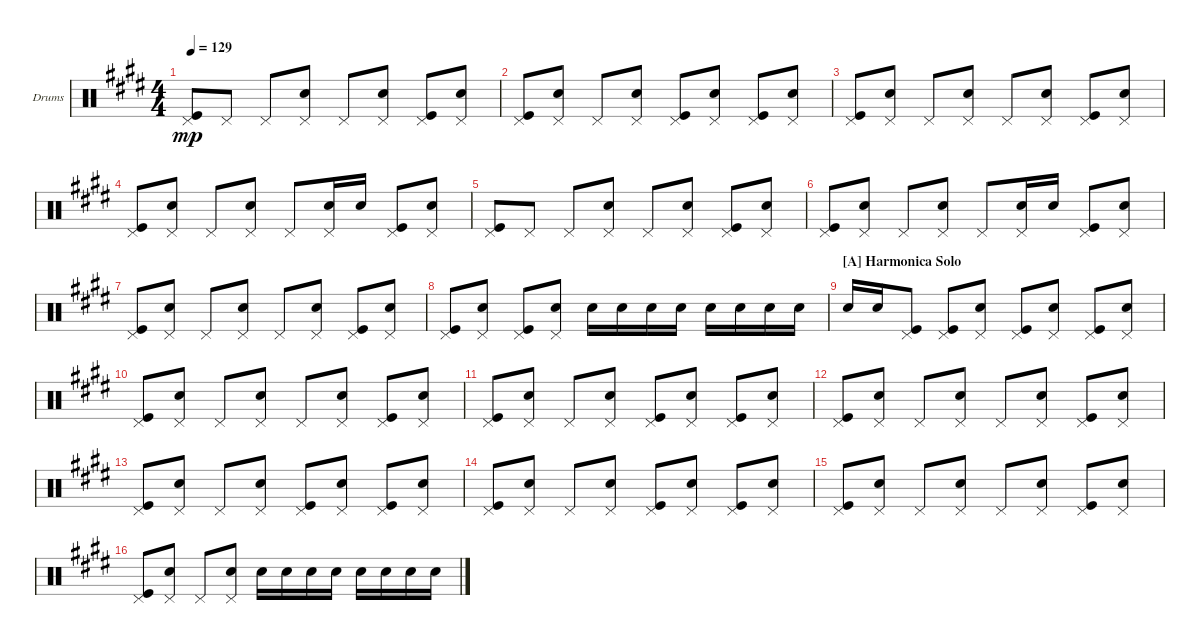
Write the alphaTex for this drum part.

\defaultSystemsLayout 4
\bracketExtendMode groupsimilarinstruments
\firstSystemTrackNameOrientation horizontal
\otherSystemsTrackNameOrientation horizontal
\chordDiagramsInScore
\track ("Drumkit" "Drums") {instrument percussion}
\staff {score}
\articulation defaults
\ts (4 4)
\tempo 129
\clef neutral
\ks c#minor
("Kick (hit)" "Pedal Hi-Hat (hit)").8{dy mp} "Pedal Hi-Hat (hit)".8 "Pedal Hi-Hat (hit)".8 ("Pedal Hi-Hat (hit)" "Snare (hit) 2").8 "Pedal Hi-Hat (hit)".8 ("Pedal Hi-Hat (hit)" "Snare (hit) 2").8 ("Pedal Hi-Hat (hit)" "Kick (hit)").8 ("Pedal Hi-Hat (hit)" "Snare (hit) 2").8 |
("Kick (hit)" "Pedal Hi-Hat (hit)").8 ("Pedal Hi-Hat (hit)" "Snare (hit) 2").8 "Pedal Hi-Hat (hit)".8 ("Pedal Hi-Hat (hit)" "Snare (hit) 2").8 ("Pedal Hi-Hat (hit)" "Kick (hit)").8 ("Pedal Hi-Hat (hit)" "Snare (hit) 2").8 ("Pedal Hi-Hat (hit)" "Kick (hit)").8 ("Pedal Hi-Hat (hit)" "Snare (hit) 2").8 |
("Kick (hit)" "Pedal Hi-Hat (hit)").8 ("Pedal Hi-Hat (hit)" "Snare (hit) 2").8 "Pedal Hi-Hat (hit)".8 ("Pedal Hi-Hat (hit)" "Snare (hit) 2").8 "Pedal Hi-Hat (hit)".8 ("Pedal Hi-Hat (hit)" "Snare (hit) 2").8 ("Pedal Hi-Hat (hit)" "Kick (hit)").8 ("Pedal Hi-Hat (hit)" "Snare (hit) 2").8 |
("Kick (hit)" "Pedal Hi-Hat (hit)").8 ("Pedal Hi-Hat (hit)" "Snare (hit) 2").8 "Pedal Hi-Hat (hit)".8 ("Pedal Hi-Hat (hit)" "Snare (hit) 2").8 "Pedal Hi-Hat (hit)".8 ("Pedal Hi-Hat (hit)" "Snare (hit) 2").16 "Snare (hit) 2".16 ("Pedal Hi-Hat (hit)" "Kick (hit)").8 ("Pedal Hi-Hat (hit)" "Snare (hit) 2").8 |
("Kick (hit)" "Pedal Hi-Hat (hit)").8 "Pedal Hi-Hat (hit)".8 "Pedal Hi-Hat (hit)".8 ("Pedal Hi-Hat (hit)" "Snare (hit) 2").8 "Pedal Hi-Hat (hit)".8 ("Pedal Hi-Hat (hit)" "Snare (hit) 2").8 ("Pedal Hi-Hat (hit)" "Kick (hit)").8 ("Pedal Hi-Hat (hit)" "Snare (hit) 2").8 |
("Kick (hit)" "Pedal Hi-Hat (hit)").8 ("Pedal Hi-Hat (hit)" "Snare (hit) 2").8 "Pedal Hi-Hat (hit)".8 ("Pedal Hi-Hat (hit)" "Snare (hit) 2").8 "Pedal Hi-Hat (hit)".8 ("Pedal Hi-Hat (hit)" "Snare (hit) 2").16 "Snare (hit) 2".16 ("Pedal Hi-Hat (hit)" "Kick (hit)").8 ("Pedal Hi-Hat (hit)" "Snare (hit) 2").8 |
("Kick (hit)" "Pedal Hi-Hat (hit)").8 ("Pedal Hi-Hat (hit)" "Snare (hit) 2").8 "Pedal Hi-Hat (hit)".8 ("Pedal Hi-Hat (hit)" "Snare (hit) 2").8 "Pedal Hi-Hat (hit)".8 ("Pedal Hi-Hat (hit)" "Snare (hit) 2").8 ("Pedal Hi-Hat (hit)" "Kick (hit)").8 ("Pedal Hi-Hat (hit)" "Snare (hit) 2").8 |
("Kick (hit)" "Pedal Hi-Hat (hit)").8 ("Pedal Hi-Hat (hit)" "Snare (hit) 2").8 ("Pedal Hi-Hat (hit)" "Kick (hit)").8 ("Pedal Hi-Hat (hit)" "Snare (hit) 2").8 "Snare (hit) 2".16 "Snare (hit) 2".16 "Snare (hit) 2".16 "Snare (hit) 2".16 "Snare (hit) 2".16 "Snare (hit) 2".16 "Snare (hit) 2".16 "Snare (hit) 2".16 |
\section ("A" "Harmonica Solo")
"Snare (hit) 2".16 "Snare (hit) 2".16 ("Kick (hit)" "Pedal Hi-Hat (hit)").8 ("Kick (hit)" "Pedal Hi-Hat (hit)").8 ("Snare (hit) 2" "Pedal Hi-Hat (hit)").8 ("Kick (hit)" "Pedal Hi-Hat (hit)").8 ("Snare (hit) 2" "Pedal Hi-Hat (hit)").8 ("Kick (hit)" "Pedal Hi-Hat (hit)").8 ("Snare (hit) 2" "Pedal Hi-Hat (hit)").8 |
("Kick (hit)" "Pedal Hi-Hat (hit)").8 ("Pedal Hi-Hat (hit)" "Snare (hit) 2").8 "Pedal Hi-Hat (hit)".8 ("Pedal Hi-Hat (hit)" "Snare (hit) 2").8 "Pedal Hi-Hat (hit)".8 ("Pedal Hi-Hat (hit)" "Snare (hit) 2").8 ("Pedal Hi-Hat (hit)" "Kick (hit)").8 ("Pedal Hi-Hat (hit)" "Snare (hit) 2").8 |
("Kick (hit)" "Pedal Hi-Hat (hit)").8 ("Pedal Hi-Hat (hit)" "Snare (hit) 2").8 "Pedal Hi-Hat (hit)".8 ("Pedal Hi-Hat (hit)" "Snare (hit) 2").8 ("Pedal Hi-Hat (hit)" "Kick (hit)").8 ("Pedal Hi-Hat (hit)" "Snare (hit) 2").8 ("Pedal Hi-Hat (hit)" "Kick (hit)").8 ("Pedal Hi-Hat (hit)" "Snare (hit) 2").8 |
("Kick (hit)" "Pedal Hi-Hat (hit)").8 ("Pedal Hi-Hat (hit)" "Snare (hit) 2").8 "Pedal Hi-Hat (hit)".8 ("Pedal Hi-Hat (hit)" "Snare (hit) 2").8 "Pedal Hi-Hat (hit)".8 ("Pedal Hi-Hat (hit)" "Snare (hit) 2").8 ("Pedal Hi-Hat (hit)" "Kick (hit)").8 ("Pedal Hi-Hat (hit)" "Snare (hit) 2").8 |
("Kick (hit)" "Pedal Hi-Hat (hit)").8 ("Pedal Hi-Hat (hit)" "Snare (hit) 2").8 "Pedal Hi-Hat (hit)".8 ("Pedal Hi-Hat (hit)" "Snare (hit) 2").8 ("Pedal Hi-Hat (hit)" "Kick (hit)").8 ("Pedal Hi-Hat (hit)" "Snare (hit) 2").8 ("Pedal Hi-Hat (hit)" "Kick (hit)").8 ("Pedal Hi-Hat (hit)" "Snare (hit) 2").8 |
("Kick (hit)" "Pedal Hi-Hat (hit)").8 ("Pedal Hi-Hat (hit)" "Snare (hit) 2").8 "Pedal Hi-Hat (hit)".8 ("Pedal Hi-Hat (hit)" "Snare (hit) 2").8 ("Pedal Hi-Hat (hit)" "Kick (hit)").8 ("Pedal Hi-Hat (hit)" "Snare (hit) 2").8 ("Pedal Hi-Hat (hit)" "Kick (hit)").8 ("Pedal Hi-Hat (hit)" "Snare (hit) 2").8 |
("Kick (hit)" "Pedal Hi-Hat (hit)").8 ("Pedal Hi-Hat (hit)" "Snare (hit) 2").8 "Pedal Hi-Hat (hit)".8 ("Pedal Hi-Hat (hit)" "Snare (hit) 2").8 "Pedal Hi-Hat (hit)".8 ("Pedal Hi-Hat (hit)" "Snare (hit) 2").8 ("Pedal Hi-Hat (hit)" "Kick (hit)").8 ("Pedal Hi-Hat (hit)" "Snare (hit) 2").8 |
("Kick (hit)" "Pedal Hi-Hat (hit)").8 ("Pedal Hi-Hat (hit)" "Snare (hit) 2").8 "Pedal Hi-Hat (hit)".8 ("Pedal Hi-Hat (hit)" "Snare (hit) 2").8 "Snare (hit) 2".16 "Snare (hit) 2".16 "Snare (hit) 2".16 "Snare (hit) 2".16 "Snare (hit) 2".16 "Snare (hit) 2".16 "Snare (hit) 2".16 "Snare (hit) 2".16
